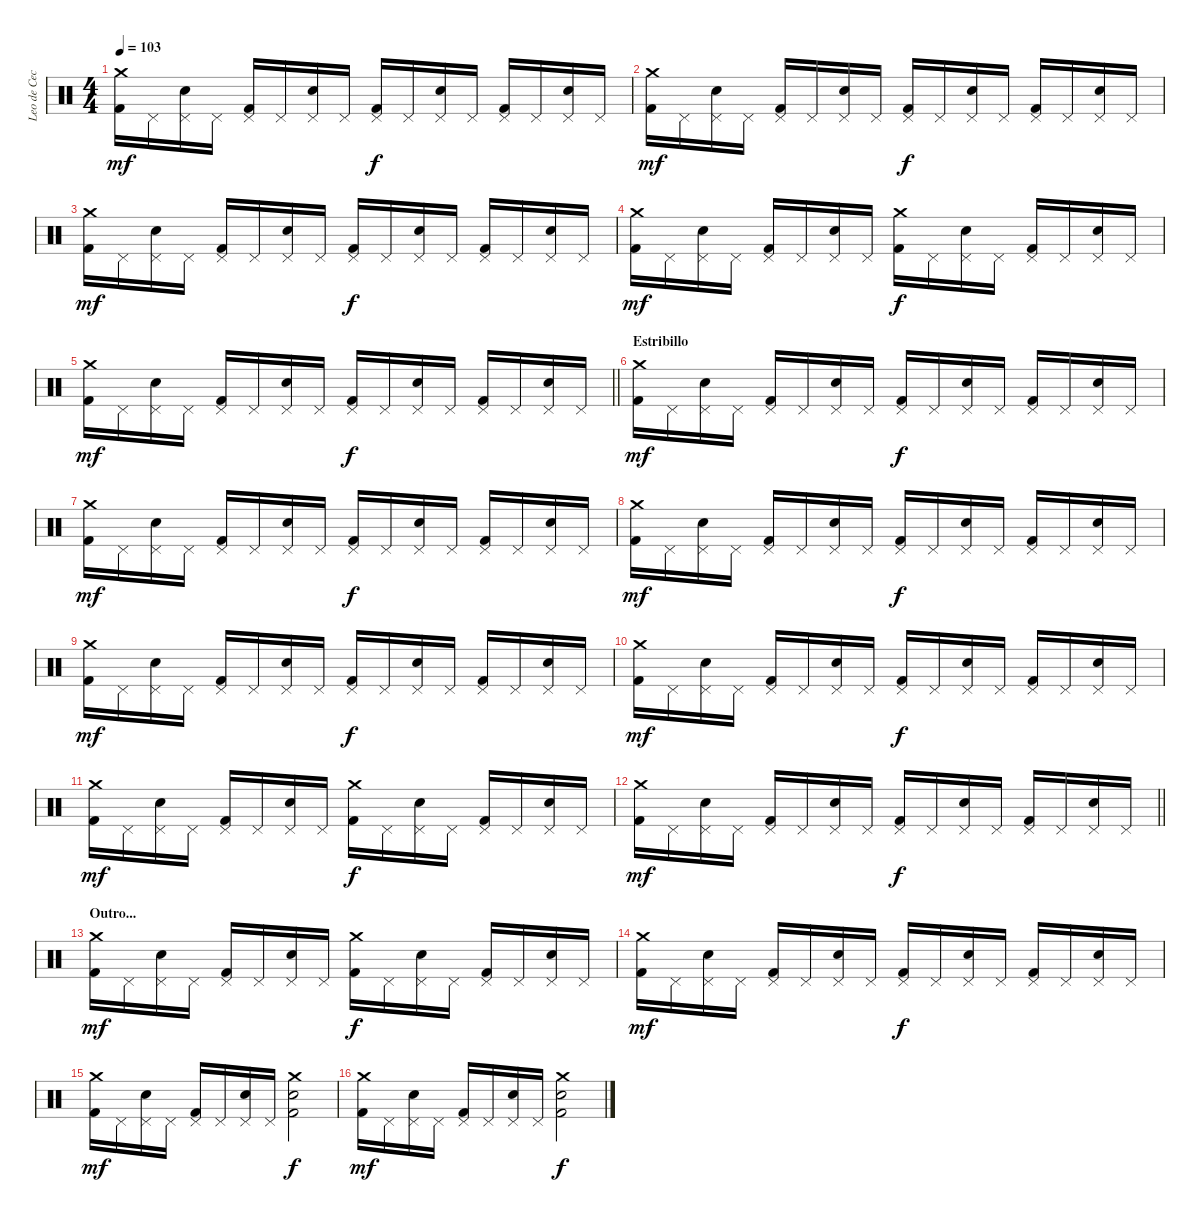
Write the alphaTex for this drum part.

\track ("Leo de Cecco" "Leo de Cec") {instrument percussion}
\staff {score}
\articulation defaults
\ts (4 4)
\tempo 103
\clef neutral
\ks c
("Crash medium (hit)" "Kick (hit) 2").16{dy mf} "Pedal Hi-Hat (hit)".16 ("Pedal Hi-Hat (hit)" "Snare (hit) 2").16 "Pedal Hi-Hat (hit)".16 ("Pedal Hi-Hat (hit)" "Kick (hit) 2").16 "Pedal Hi-Hat (hit)".16 ("Pedal Hi-Hat (hit)" "Snare (hit) 2").16 "Pedal Hi-Hat (hit)".16 ("Pedal Hi-Hat (hit)" "Kick (hit) 2").16{dy f} "Pedal Hi-Hat (hit)".16 ("Pedal Hi-Hat (hit)" "Snare (hit) 2").16 "Pedal Hi-Hat (hit)".16 ("Pedal Hi-Hat (hit)" "Kick (hit) 2").16 "Pedal Hi-Hat (hit)".16 ("Pedal Hi-Hat (hit)" "Snare (hit) 2").16 "Pedal Hi-Hat (hit)".16 |
("Crash medium (hit)" "Kick (hit) 2").16{dy mf} "Pedal Hi-Hat (hit)".16 ("Pedal Hi-Hat (hit)" "Snare (hit) 2").16 "Pedal Hi-Hat (hit)".16 ("Pedal Hi-Hat (hit)" "Kick (hit) 2").16 "Pedal Hi-Hat (hit)".16 ("Pedal Hi-Hat (hit)" "Snare (hit) 2").16 "Pedal Hi-Hat (hit)".16 ("Pedal Hi-Hat (hit)" "Kick (hit) 2").16{dy f} "Pedal Hi-Hat (hit)".16 ("Pedal Hi-Hat (hit)" "Snare (hit) 2").16 "Pedal Hi-Hat (hit)".16 ("Pedal Hi-Hat (hit)" "Kick (hit) 2").16 "Pedal Hi-Hat (hit)".16 ("Pedal Hi-Hat (hit)" "Snare (hit) 2").16 "Pedal Hi-Hat (hit)".16 |
("Crash medium (hit)" "Kick (hit) 2").16{dy mf} "Pedal Hi-Hat (hit)".16 ("Pedal Hi-Hat (hit)" "Snare (hit) 2").16 "Pedal Hi-Hat (hit)".16 ("Pedal Hi-Hat (hit)" "Kick (hit) 2").16 "Pedal Hi-Hat (hit)".16 ("Pedal Hi-Hat (hit)" "Snare (hit) 2").16 "Pedal Hi-Hat (hit)".16 ("Pedal Hi-Hat (hit)" "Kick (hit) 2").16{dy f} "Pedal Hi-Hat (hit)".16 ("Pedal Hi-Hat (hit)" "Snare (hit) 2").16 "Pedal Hi-Hat (hit)".16 ("Pedal Hi-Hat (hit)" "Kick (hit) 2").16 "Pedal Hi-Hat (hit)".16 ("Pedal Hi-Hat (hit)" "Snare (hit) 2").16 "Pedal Hi-Hat (hit)".16 |
("Crash medium (hit)" "Kick (hit) 2").16{dy mf} "Pedal Hi-Hat (hit)".16 ("Pedal Hi-Hat (hit)" "Snare (hit) 2").16 "Pedal Hi-Hat (hit)".16 ("Pedal Hi-Hat (hit)" "Kick (hit) 2").16 "Pedal Hi-Hat (hit)".16 ("Pedal Hi-Hat (hit)" "Snare (hit) 2").16 "Pedal Hi-Hat (hit)".16 ("Crash medium (hit)" "Kick (hit) 2").16{dy f} "Pedal Hi-Hat (hit)".16 ("Pedal Hi-Hat (hit)" "Snare (hit) 2").16 "Pedal Hi-Hat (hit)".16 ("Pedal Hi-Hat (hit)" "Kick (hit) 2").16 "Pedal Hi-Hat (hit)".16 ("Pedal Hi-Hat (hit)" "Snare (hit) 2").16 "Pedal Hi-Hat (hit)".16 |
\barLineRight lightlight
("Crash medium (hit)" "Kick (hit) 2").16{dy mf} "Pedal Hi-Hat (hit)".16 ("Pedal Hi-Hat (hit)" "Snare (hit) 2").16 "Pedal Hi-Hat (hit)".16 ("Pedal Hi-Hat (hit)" "Kick (hit) 2").16 "Pedal Hi-Hat (hit)".16 ("Pedal Hi-Hat (hit)" "Snare (hit) 2").16 "Pedal Hi-Hat (hit)".16 ("Pedal Hi-Hat (hit)" "Kick (hit) 2").16{dy f} "Pedal Hi-Hat (hit)".16 ("Pedal Hi-Hat (hit)" "Snare (hit) 2").16 "Pedal Hi-Hat (hit)".16 ("Pedal Hi-Hat (hit)" "Kick (hit) 2").16 "Pedal Hi-Hat (hit)".16 ("Pedal Hi-Hat (hit)" "Snare (hit) 2").16 "Pedal Hi-Hat (hit)".16 |
\section ("" "Estribillo")
("Crash medium (hit)" "Kick (hit) 2").16{dy mf} "Pedal Hi-Hat (hit)".16 ("Pedal Hi-Hat (hit)" "Snare (hit) 2").16 "Pedal Hi-Hat (hit)".16 ("Pedal Hi-Hat (hit)" "Kick (hit) 2").16 "Pedal Hi-Hat (hit)".16 ("Pedal Hi-Hat (hit)" "Snare (hit) 2").16 "Pedal Hi-Hat (hit)".16 ("Pedal Hi-Hat (hit)" "Kick (hit) 2").16{dy f} "Pedal Hi-Hat (hit)".16 ("Pedal Hi-Hat (hit)" "Snare (hit) 2").16 "Pedal Hi-Hat (hit)".16 ("Pedal Hi-Hat (hit)" "Kick (hit) 2").16 "Pedal Hi-Hat (hit)".16 ("Pedal Hi-Hat (hit)" "Snare (hit) 2").16 "Pedal Hi-Hat (hit)".16 |
("Crash medium (hit)" "Kick (hit) 2").16{dy mf} "Pedal Hi-Hat (hit)".16 ("Pedal Hi-Hat (hit)" "Snare (hit) 2").16 "Pedal Hi-Hat (hit)".16 ("Pedal Hi-Hat (hit)" "Kick (hit) 2").16 "Pedal Hi-Hat (hit)".16 ("Pedal Hi-Hat (hit)" "Snare (hit) 2").16 "Pedal Hi-Hat (hit)".16 ("Pedal Hi-Hat (hit)" "Kick (hit) 2").16{dy f} "Pedal Hi-Hat (hit)".16 ("Pedal Hi-Hat (hit)" "Snare (hit) 2").16 "Pedal Hi-Hat (hit)".16 ("Pedal Hi-Hat (hit)" "Kick (hit) 2").16 "Pedal Hi-Hat (hit)".16 ("Pedal Hi-Hat (hit)" "Snare (hit) 2").16 "Pedal Hi-Hat (hit)".16 |
("Crash medium (hit)" "Kick (hit) 2").16{dy mf} "Pedal Hi-Hat (hit)".16 ("Pedal Hi-Hat (hit)" "Snare (hit) 2").16 "Pedal Hi-Hat (hit)".16 ("Pedal Hi-Hat (hit)" "Kick (hit) 2").16 "Pedal Hi-Hat (hit)".16 ("Pedal Hi-Hat (hit)" "Snare (hit) 2").16 "Pedal Hi-Hat (hit)".16 ("Pedal Hi-Hat (hit)" "Kick (hit) 2").16{dy f} "Pedal Hi-Hat (hit)".16 ("Pedal Hi-Hat (hit)" "Snare (hit) 2").16 "Pedal Hi-Hat (hit)".16 ("Pedal Hi-Hat (hit)" "Kick (hit) 2").16 "Pedal Hi-Hat (hit)".16 ("Pedal Hi-Hat (hit)" "Snare (hit) 2").16 "Pedal Hi-Hat (hit)".16 |
("Crash medium (hit)" "Kick (hit) 2").16{dy mf} "Pedal Hi-Hat (hit)".16 ("Pedal Hi-Hat (hit)" "Snare (hit) 2").16 "Pedal Hi-Hat (hit)".16 ("Pedal Hi-Hat (hit)" "Kick (hit) 2").16 "Pedal Hi-Hat (hit)".16 ("Pedal Hi-Hat (hit)" "Snare (hit) 2").16 "Pedal Hi-Hat (hit)".16 ("Pedal Hi-Hat (hit)" "Kick (hit) 2").16{dy f} "Pedal Hi-Hat (hit)".16 ("Pedal Hi-Hat (hit)" "Snare (hit) 2").16 "Pedal Hi-Hat (hit)".16 ("Pedal Hi-Hat (hit)" "Kick (hit) 2").16 "Pedal Hi-Hat (hit)".16 ("Pedal Hi-Hat (hit)" "Snare (hit) 2").16 "Pedal Hi-Hat (hit)".16 |
("Crash medium (hit)" "Kick (hit) 2").16{dy mf} "Pedal Hi-Hat (hit)".16 ("Pedal Hi-Hat (hit)" "Snare (hit) 2").16 "Pedal Hi-Hat (hit)".16 ("Pedal Hi-Hat (hit)" "Kick (hit) 2").16 "Pedal Hi-Hat (hit)".16 ("Pedal Hi-Hat (hit)" "Snare (hit) 2").16 "Pedal Hi-Hat (hit)".16 ("Pedal Hi-Hat (hit)" "Kick (hit) 2").16{dy f} "Pedal Hi-Hat (hit)".16 ("Pedal Hi-Hat (hit)" "Snare (hit) 2").16 "Pedal Hi-Hat (hit)".16 ("Pedal Hi-Hat (hit)" "Kick (hit) 2").16 "Pedal Hi-Hat (hit)".16 ("Pedal Hi-Hat (hit)" "Snare (hit) 2").16 "Pedal Hi-Hat (hit)".16 |
("Crash medium (hit)" "Kick (hit) 2").16{dy mf} "Pedal Hi-Hat (hit)".16 ("Pedal Hi-Hat (hit)" "Snare (hit) 2").16 "Pedal Hi-Hat (hit)".16 ("Pedal Hi-Hat (hit)" "Kick (hit) 2").16 "Pedal Hi-Hat (hit)".16 ("Pedal Hi-Hat (hit)" "Snare (hit) 2").16 "Pedal Hi-Hat (hit)".16 ("Crash medium (hit)" "Kick (hit) 2").16{dy f} "Pedal Hi-Hat (hit)".16 ("Pedal Hi-Hat (hit)" "Snare (hit) 2").16 "Pedal Hi-Hat (hit)".16 ("Pedal Hi-Hat (hit)" "Kick (hit) 2").16 "Pedal Hi-Hat (hit)".16 ("Pedal Hi-Hat (hit)" "Snare (hit) 2").16 "Pedal Hi-Hat (hit)".16 |
\barLineRight lightlight
("Crash medium (hit)" "Kick (hit) 2").16{dy mf} "Pedal Hi-Hat (hit)".16 ("Pedal Hi-Hat (hit)" "Snare (hit) 2").16 "Pedal Hi-Hat (hit)".16 ("Pedal Hi-Hat (hit)" "Kick (hit) 2").16 "Pedal Hi-Hat (hit)".16 ("Pedal Hi-Hat (hit)" "Snare (hit) 2").16 "Pedal Hi-Hat (hit)".16 ("Pedal Hi-Hat (hit)" "Kick (hit) 2").16{dy f} "Pedal Hi-Hat (hit)".16 ("Pedal Hi-Hat (hit)" "Snare (hit) 2").16 "Pedal Hi-Hat (hit)".16 ("Pedal Hi-Hat (hit)" "Kick (hit) 2").16 "Pedal Hi-Hat (hit)".16 ("Pedal Hi-Hat (hit)" "Snare (hit) 2").16 "Pedal Hi-Hat (hit)".16 |
\section ("" "Outro...")
("Crash medium (hit)" "Kick (hit) 2").16{dy mf} "Pedal Hi-Hat (hit)".16 ("Pedal Hi-Hat (hit)" "Snare (hit) 2").16 "Pedal Hi-Hat (hit)".16 ("Pedal Hi-Hat (hit)" "Kick (hit) 2").16 "Pedal Hi-Hat (hit)".16 ("Pedal Hi-Hat (hit)" "Snare (hit) 2").16 "Pedal Hi-Hat (hit)".16 ("Crash medium (hit)" "Kick (hit) 2").16{dy f} "Pedal Hi-Hat (hit)".16 ("Pedal Hi-Hat (hit)" "Snare (hit) 2").16 "Pedal Hi-Hat (hit)".16 ("Pedal Hi-Hat (hit)" "Kick (hit) 2").16 "Pedal Hi-Hat (hit)".16 ("Pedal Hi-Hat (hit)" "Snare (hit) 2").16 "Pedal Hi-Hat (hit)".16 |
("Crash medium (hit)" "Kick (hit) 2").16{dy mf} "Pedal Hi-Hat (hit)".16 ("Pedal Hi-Hat (hit)" "Snare (hit) 2").16 "Pedal Hi-Hat (hit)".16 ("Pedal Hi-Hat (hit)" "Kick (hit) 2").16 "Pedal Hi-Hat (hit)".16 ("Pedal Hi-Hat (hit)" "Snare (hit) 2").16 "Pedal Hi-Hat (hit)".16 ("Pedal Hi-Hat (hit)" "Kick (hit) 2").16{dy f} "Pedal Hi-Hat (hit)".16 ("Pedal Hi-Hat (hit)" "Snare (hit) 2").16 "Pedal Hi-Hat (hit)".16 ("Pedal Hi-Hat (hit)" "Kick (hit) 2").16 "Pedal Hi-Hat (hit)".16 ("Pedal Hi-Hat (hit)" "Snare (hit) 2").16 "Pedal Hi-Hat (hit)".16 |
("Crash medium (hit)" "Kick (hit) 2").16{dy mf} "Pedal Hi-Hat (hit)".16 ("Pedal Hi-Hat (hit)" "Snare (hit) 2").16 "Pedal Hi-Hat (hit)".16 ("Pedal Hi-Hat (hit)" "Kick (hit) 2").16 "Pedal Hi-Hat (hit)".16 ("Pedal Hi-Hat (hit)" "Snare (hit) 2").16 "Pedal Hi-Hat (hit)".16 ("Crash medium (hit)" "Kick (hit) 2" "Snare (hit) 2").2{dy f} |
("Crash medium (hit)" "Kick (hit) 2").16{dy mf} "Pedal Hi-Hat (hit)".16 ("Pedal Hi-Hat (hit)" "Snare (hit) 2").16 "Pedal Hi-Hat (hit)".16 ("Pedal Hi-Hat (hit)" "Kick (hit) 2").16 "Pedal Hi-Hat (hit)".16 ("Pedal Hi-Hat (hit)" "Snare (hit) 2").16 "Pedal Hi-Hat (hit)".16 ("Crash medium (hit)" "Kick (hit) 2" "Snare (hit) 2").2{dy f}
